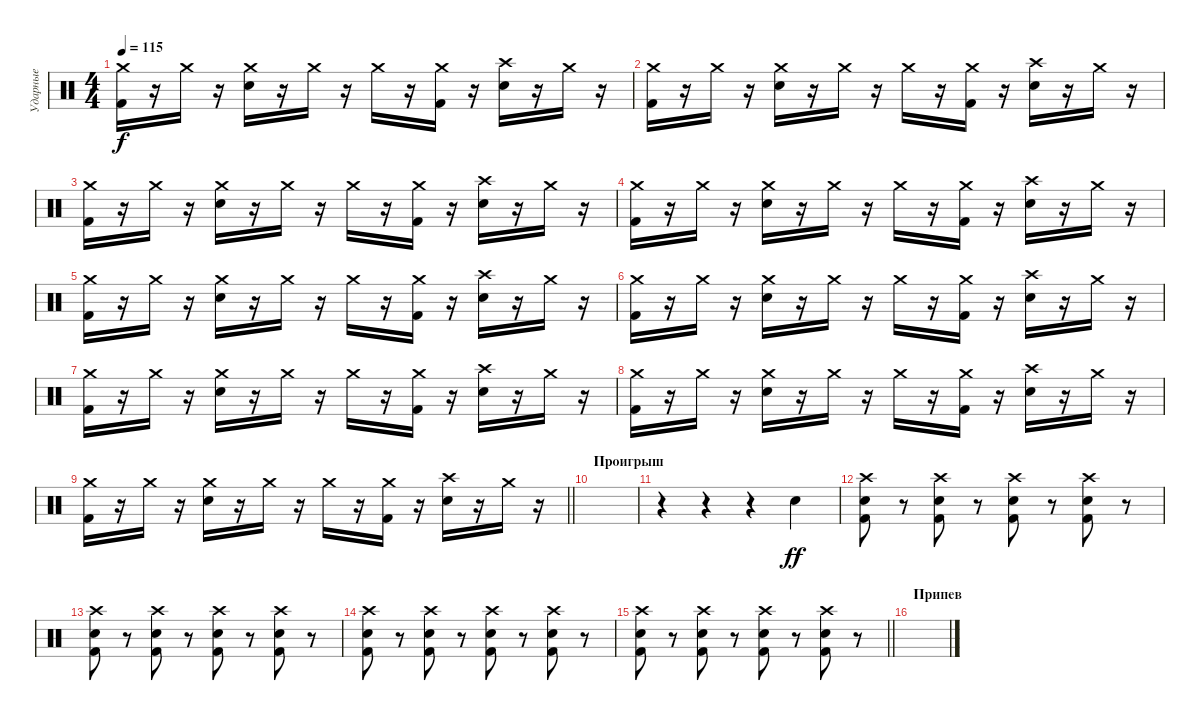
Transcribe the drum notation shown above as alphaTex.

\track ("Ударные" "Ударные") {instrument percussion}
\staff {score}
\articulation defaults
\ts (4 4)
\tempo 115
\clef neutral
\ks c
("Crash medium (hit)" "Kick (hit) 2").16{dy f} r.16 "Crash medium (hit)".16 r.16 ("Crash medium (hit)" "Electric Snare (hit)").16 r.16 "Crash medium (hit)".16 r.16 "Crash medium (hit)".16 r.16 ("Crash medium (hit)" "Kick (hit) 2").16 r.16 ("Crash high (hit)" "Electric Snare (hit)").16 r.16 "Crash medium (hit)".16 r.16 |
("Crash medium (hit)" "Kick (hit) 2").16 r.16 "Crash medium (hit)".16 r.16 ("Crash medium (hit)" "Electric Snare (hit)").16 r.16 "Crash medium (hit)".16 r.16 "Crash medium (hit)".16 r.16 ("Crash medium (hit)" "Kick (hit) 2").16 r.16 ("Crash high (hit)" "Electric Snare (hit)").16 r.16 "Crash medium (hit)".16 r.16 |
("Crash medium (hit)" "Kick (hit) 2").16 r.16 "Crash medium (hit)".16 r.16 ("Crash medium (hit)" "Electric Snare (hit)").16 r.16 "Crash medium (hit)".16 r.16 "Crash medium (hit)".16 r.16 ("Crash medium (hit)" "Kick (hit) 2").16 r.16 ("Crash high (hit)" "Electric Snare (hit)").16 r.16 "Crash medium (hit)".16 r.16 |
("Crash medium (hit)" "Kick (hit) 2").16 r.16 "Crash medium (hit)".16 r.16 ("Crash medium (hit)" "Electric Snare (hit)").16 r.16 "Crash medium (hit)".16 r.16 "Crash medium (hit)".16 r.16 ("Crash medium (hit)" "Kick (hit) 2").16 r.16 ("Crash high (hit)" "Electric Snare (hit)").16 r.16 "Crash medium (hit)".16 r.16 |
("Crash medium (hit)" "Kick (hit) 2").16 r.16 "Crash medium (hit)".16 r.16 ("Crash medium (hit)" "Electric Snare (hit)").16 r.16 "Crash medium (hit)".16 r.16 "Crash medium (hit)".16 r.16 ("Crash medium (hit)" "Kick (hit) 2").16 r.16 ("Crash high (hit)" "Electric Snare (hit)").16 r.16 "Crash medium (hit)".16 r.16 |
("Crash medium (hit)" "Kick (hit) 2").16 r.16 "Crash medium (hit)".16 r.16 ("Crash medium (hit)" "Electric Snare (hit)").16 r.16 "Crash medium (hit)".16 r.16 "Crash medium (hit)".16 r.16 ("Crash medium (hit)" "Kick (hit) 2").16 r.16 ("Crash high (hit)" "Electric Snare (hit)").16 r.16 "Crash medium (hit)".16 r.16 |
("Crash medium (hit)" "Kick (hit) 2").16 r.16 "Crash medium (hit)".16 r.16 ("Crash medium (hit)" "Electric Snare (hit)").16 r.16 "Crash medium (hit)".16 r.16 "Crash medium (hit)".16 r.16 ("Crash medium (hit)" "Kick (hit) 2").16 r.16 ("Crash high (hit)" "Electric Snare (hit)").16 r.16 "Crash medium (hit)".16 r.16 |
("Crash medium (hit)" "Kick (hit) 2").16 r.16 "Crash medium (hit)".16 r.16 ("Crash medium (hit)" "Electric Snare (hit)").16 r.16 "Crash medium (hit)".16 r.16 "Crash medium (hit)".16 r.16 ("Crash medium (hit)" "Kick (hit) 2").16 r.16 ("Crash high (hit)" "Electric Snare (hit)").16 r.16 "Crash medium (hit)".16 r.16 |
\barLineRight lightlight
("Crash medium (hit)" "Kick (hit) 2").16 r.16 "Crash medium (hit)".16 r.16 ("Crash medium (hit)" "Electric Snare (hit)").16 r.16 "Crash medium (hit)".16 r.16 "Crash medium (hit)".16 r.16 ("Crash medium (hit)" "Kick (hit) 2").16 r.16 ("Crash high (hit)" "Electric Snare (hit)").16 r.16 "Crash medium (hit)".16 r.16 |
\section ("" "Проигрыш")
|
r.4 r.4 r.4 "Electric Snare (hit)".4{dy ff} |
("Crash high (hit)" "Electric Snare (hit)" "Kick (hit) 2").8 r.8 ("Crash high (hit)" "Electric Snare (hit)" "Kick (hit) 2").8 r.8 ("Crash high (hit)" "Electric Snare (hit)" "Kick (hit) 2").8 r.8 ("Crash high (hit)" "Electric Snare (hit)" "Kick (hit) 2").8 r.8 |
("Crash high (hit)" "Electric Snare (hit)" "Kick (hit) 2").8 r.8 ("Crash high (hit)" "Electric Snare (hit)" "Kick (hit) 2").8 r.8 ("Crash high (hit)" "Electric Snare (hit)" "Kick (hit) 2").8 r.8 ("Crash high (hit)" "Electric Snare (hit)" "Kick (hit) 2").8 r.8 |
("Crash high (hit)" "Electric Snare (hit)" "Kick (hit) 2").8 r.8 ("Crash high (hit)" "Electric Snare (hit)" "Kick (hit) 2").8 r.8 ("Crash high (hit)" "Electric Snare (hit)" "Kick (hit) 2").8 r.8 ("Crash high (hit)" "Electric Snare (hit)" "Kick (hit) 2").8 r.8 |
\barLineRight lightlight
("Crash high (hit)" "Electric Snare (hit)" "Kick (hit) 2").8 r.8 ("Crash high (hit)" "Electric Snare (hit)" "Kick (hit) 2").8 r.8 ("Crash high (hit)" "Electric Snare (hit)" "Kick (hit) 2").8 r.8 ("Crash high (hit)" "Electric Snare (hit)" "Kick (hit) 2").8 r.8 |
\section ("" "Припев")
